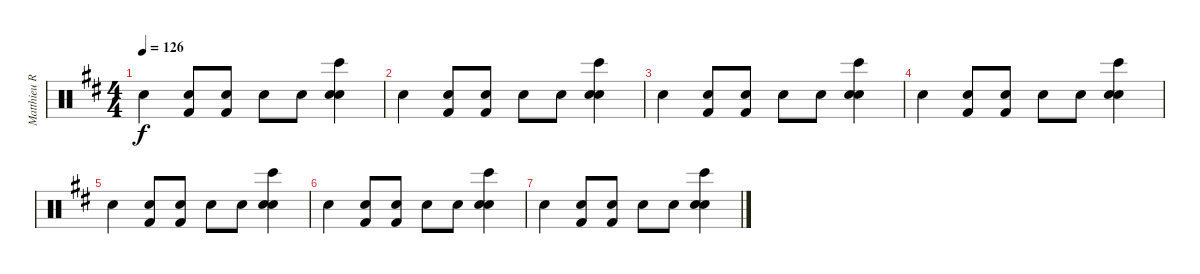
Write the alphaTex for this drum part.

\track ("Matthieu Rabatté (batterie)" "Matthieu R") {instrument percussion}
\staff {score}
\articulation defaults
\ts (4 4)
\tempo 126
\clef neutral
\ks d "Snare (hit) 2".4{dy f}
("Kick (hit) 2" "Electric Snare (hit)").8 ("Kick (hit) 2" "Electric Snare (hit)").8 "Snare (hit) 2".8 "Snare (hit) 2".8 ("Bongo High (hit)" "Electric Snare (hit)" "Hand Clap (hit)").4 |
"Snare (hit) 2".4 ("Kick (hit) 2" "Electric Snare (hit)").8 ("Kick (hit) 2" "Electric Snare (hit)").8 "Snare (hit) 2".8 "Snare (hit) 2".8 ("Bongo High (hit)" "Electric Snare (hit)" "Hand Clap (hit)").4 |
"Snare (hit) 2".4 ("Kick (hit) 2" "Electric Snare (hit)").8 ("Kick (hit) 2" "Electric Snare (hit)").8 "Snare (hit) 2".8 "Snare (hit) 2".8 ("Bongo High (hit)" "Electric Snare (hit)" "Hand Clap (hit)").4 |
"Snare (hit) 2".4 ("Kick (hit) 2" "Electric Snare (hit)").8 ("Kick (hit) 2" "Electric Snare (hit)").8 "Snare (hit) 2".8 "Snare (hit) 2".8 ("Bongo High (hit)" "Electric Snare (hit)" "Hand Clap (hit)").4 |
"Snare (hit) 2".4 ("Kick (hit) 2" "Electric Snare (hit)").8 ("Kick (hit) 2" "Electric Snare (hit)").8 "Snare (hit) 2".8 "Snare (hit) 2".8 ("Bongo High (hit)" "Electric Snare (hit)" "Hand Clap (hit)").4 |
"Snare (hit) 2".4 ("Kick (hit) 2" "Electric Snare (hit)").8 ("Kick (hit) 2" "Electric Snare (hit)").8 "Snare (hit) 2".8 "Snare (hit) 2".8 ("Bongo High (hit)" "Electric Snare (hit)" "Hand Clap (hit)").4 |
"Snare (hit) 2".4 ("Kick (hit) 2" "Electric Snare (hit)").8 ("Kick (hit) 2" "Electric Snare (hit)").8 "Snare (hit) 2".8 "Snare (hit) 2".8 ("Bongo High (hit)" "Electric Snare (hit)" "Hand Clap (hit)").4
